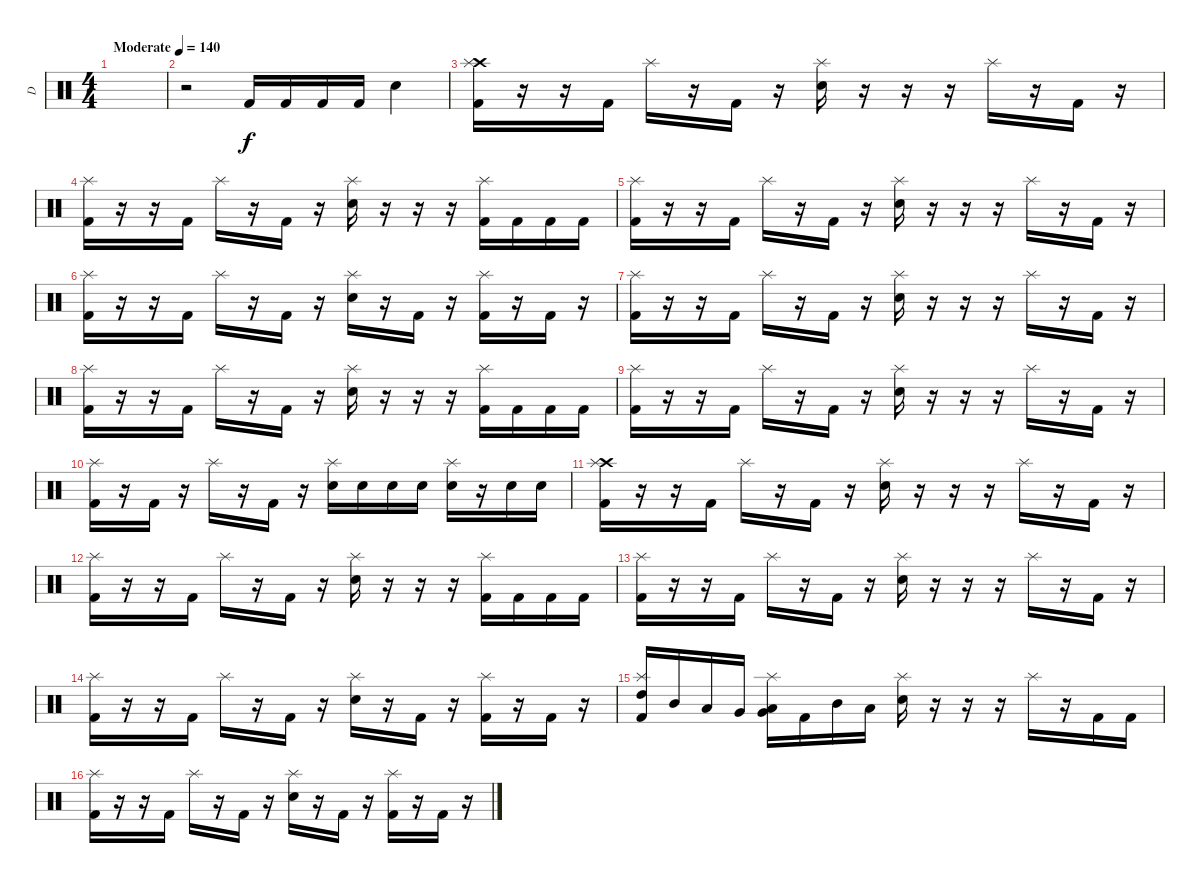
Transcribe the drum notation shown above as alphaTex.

\track ("D" "D") {instrument percussion}
\staff {score}
\articulation defaults
\ts (4 4)
\tempo (140 "Moderate")
\clef neutral
\ks c
|
r.2 "Kick (hit) 2".16 "Kick (hit) 2".16 "Kick (hit) 2".16 "Kick (hit) 2".16 "Electric Snare (hit)".4 |
("Crash high (hit)" "Kick (hit) 2" "Splash (hit)").16 r.16 r.16 "Kick (hit) 2".16 "Splash (hit)".16 r.16 "Kick (hit) 2".16 r.16 ("Electric Snare (hit)" "Splash (hit)").16 r.16 r.16 r.16 "Splash (hit)".16 r.16 "Kick (hit) 2".16 r.16 |
("Kick (hit) 2" "Splash (hit)").16 r.16 r.16 "Kick (hit) 2".16 "Splash (hit)".16 r.16 "Kick (hit) 2".16 r.16 ("Electric Snare (hit)" "Splash (hit)").16 r.16 r.16 r.16 ("Kick (hit) 2" "Splash (hit)").16 "Kick (hit) 2".16 "Kick (hit) 2".16 "Kick (hit) 2".16 |
("Kick (hit) 2" "Splash (hit)").16 r.16 r.16 "Kick (hit) 2".16 "Splash (hit)".16 r.16 "Kick (hit) 2".16 r.16 ("Electric Snare (hit)" "Splash (hit)").16 r.16 r.16 r.16 "Splash (hit)".16 r.16 "Kick (hit) 2".16 r.16 |
("Kick (hit) 2" "Splash (hit)").16 r.16 r.16 "Kick (hit) 2".16 "Splash (hit)".16 r.16 "Kick (hit) 2".16 r.16 ("Electric Snare (hit)" "Splash (hit)").16 r.16 "Kick (hit) 2".16 r.16 ("Kick (hit) 2" "Splash (hit)").16 r.16 "Kick (hit) 2".16 r.16 |
("Kick (hit) 2" "Splash (hit)").16 r.16 r.16 "Kick (hit) 2".16 "Splash (hit)".16 r.16 "Kick (hit) 2".16 r.16 ("Electric Snare (hit)" "Splash (hit)").16 r.16 r.16 r.16 "Splash (hit)".16 r.16 "Kick (hit) 2".16 r.16 |
("Kick (hit) 2" "Splash (hit)").16 r.16 r.16 "Kick (hit) 2".16 "Splash (hit)".16 r.16 "Kick (hit) 2".16 r.16 ("Electric Snare (hit)" "Splash (hit)").16 r.16 r.16 r.16 ("Kick (hit) 2" "Splash (hit)").16 "Kick (hit) 2".16 "Kick (hit) 2".16 "Kick (hit) 2".16 |
("Kick (hit) 2" "Splash (hit)").16 r.16 r.16 "Kick (hit) 2".16 "Splash (hit)".16 r.16 "Kick (hit) 2".16 r.16 ("Electric Snare (hit)" "Splash (hit)").16 r.16 r.16 r.16 "Splash (hit)".16 r.16 "Kick (hit) 2".16 r.16 |
("Kick (hit) 2" "Splash (hit)").16 r.16 "Kick (hit) 2".16 r.16 "Splash (hit)".16 r.16 "Kick (hit) 2".16 r.16 ("Electric Snare (hit)" "Splash (hit)").16 "Electric Snare (hit)".16 "Electric Snare (hit)".16 "Electric Snare (hit)".16 ("Electric Snare (hit)" "Splash (hit)").16 r.16 "Electric Snare (hit)".16 "Electric Snare (hit)".16 |
("Crash high (hit)" "Kick (hit) 2" "Splash (hit)").16 r.16 r.16 "Kick (hit) 2".16 "Splash (hit)".16 r.16 "Kick (hit) 2".16 r.16 ("Electric Snare (hit)" "Splash (hit)").16 r.16 r.16 r.16 "Splash (hit)".16 r.16 "Kick (hit) 2".16 r.16 |
("Kick (hit) 2" "Splash (hit)").16 r.16 r.16 "Kick (hit) 2".16 "Splash (hit)".16 r.16 "Kick (hit) 2".16 r.16 ("Electric Snare (hit)" "Splash (hit)").16 r.16 r.16 r.16 ("Kick (hit) 2" "Splash (hit)").16 "Kick (hit) 2".16 "Kick (hit) 2".16 "Kick (hit) 2".16 |
("Kick (hit) 2" "Splash (hit)").16 r.16 r.16 "Kick (hit) 2".16 "Splash (hit)".16 r.16 "Kick (hit) 2".16 r.16 ("Electric Snare (hit)" "Splash (hit)").16 r.16 r.16 r.16 "Splash (hit)".16 r.16 "Kick (hit) 2".16 r.16 |
("Kick (hit) 2" "Splash (hit)").16 r.16 r.16 "Kick (hit) 2".16 "Splash (hit)".16 r.16 "Kick (hit) 2".16 r.16 ("Electric Snare (hit)" "Splash (hit)").16 r.16 "Kick (hit) 2".16 r.16 ("Kick (hit) 2" "Splash (hit)").16 r.16 "Kick (hit) 2".16 r.16 |
("High Tom (hit)" "Kick (hit) 2" "Splash (hit)").16 "Mid Tom (hit)".16 "Low Tom (hit)".16 "Very Low Tom (hit)".16 ("Low Tom (hit)" "Very Low Tom (hit)" "Splash (hit)").16 "Kick (hit) 2".16 "Mid Tom (hit)".16 "Low Tom (hit)".16 ("Electric Snare (hit)" "Splash (hit)").16 r.16 r.16 r.16 "Splash (hit)".16 r.16 "Kick (hit) 2".16 "Kick (hit) 2".16 |
("Kick (hit) 2" "Splash (hit)").16 r.16 r.16 "Kick (hit) 2".16 "Splash (hit)".16 r.16 "Kick (hit) 2".16 r.16 ("Electric Snare (hit)" "Splash (hit)").16 r.16 "Kick (hit) 2".16 r.16 ("Kick (hit) 2" "Splash (hit)").16 r.16 "Kick (hit) 2".16 r.16
